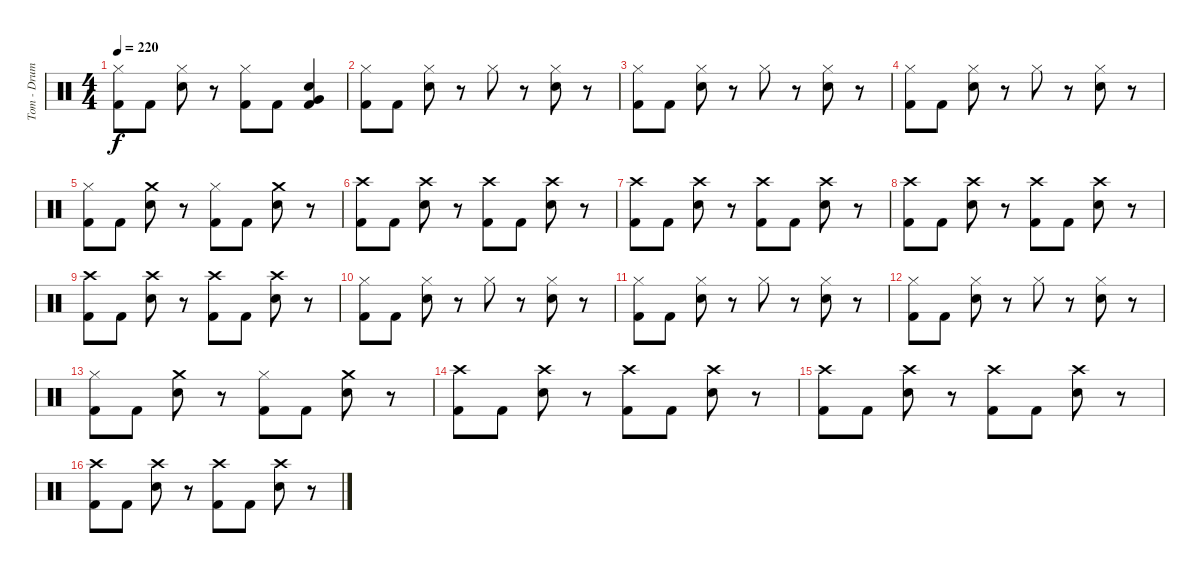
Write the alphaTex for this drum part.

\track ("Tom - Drums" "Tom - Drum") {instrument percussion}
\staff {score}
\articulation defaults
\ts (4 4)
\tempo 220
\clef neutral
\ks c
("Hi-Hat (closed)" "Kick (hit) 2").8{dy f} "Kick (hit) 2".8 ("Hi-Hat (closed)" "Electric Snare (hit)").8 r.8 ("Hi-Hat (closed)" "Kick (hit) 2").8 "Kick (hit) 2".8 ("Very Low Tom (hit)" "Kick (hit) 2" "Electric Snare (hit)").4 |
("Hi-Hat (closed)" "Kick (hit) 2").8 "Kick (hit) 2".8 ("Hi-Hat (closed)" "Electric Snare (hit)").8 r.8 "Hi-Hat (closed)".8 r.8 ("Hi-Hat (closed)" "Electric Snare (hit)").8 r.8 |
("Hi-Hat (closed)" "Kick (hit) 2").8 "Kick (hit) 2".8 ("Hi-Hat (closed)" "Electric Snare (hit)").8 r.8 "Hi-Hat (closed)".8 r.8 ("Hi-Hat (closed)" "Electric Snare (hit)").8 r.8 |
("Hi-Hat (closed)" "Kick (hit) 2").8 "Kick (hit) 2".8 ("Hi-Hat (closed)" "Electric Snare (hit)").8 r.8 "Hi-Hat (closed)".8 r.8 ("Hi-Hat (closed)" "Electric Snare (hit)").8 r.8 |
("Hi-Hat (closed)" "Kick (hit) 2").8 "Kick (hit) 2".8 ("Crash medium (hit)" "Electric Snare (hit)").8 r.8 ("Hi-Hat (closed)" "Kick (hit) 2").8 "Kick (hit) 2".8 ("Crash medium (hit)" "Electric Snare (hit)").8 r.8 |
("Crash high (hit)" "Kick (hit) 2").8 "Kick (hit) 2".8 ("Crash high (hit)" "Electric Snare (hit)").8 r.8 ("Crash high (hit)" "Kick (hit) 2").8 "Kick (hit) 2".8 ("Crash high (hit)" "Electric Snare (hit)").8 r.8 |
("Crash high (hit)" "Kick (hit) 2").8 "Kick (hit) 2".8 ("Crash high (hit)" "Electric Snare (hit)").8 r.8 ("Crash high (hit)" "Kick (hit) 2").8 "Kick (hit) 2".8 ("Crash high (hit)" "Electric Snare (hit)").8 r.8 |
("Crash high (hit)" "Kick (hit) 2").8 "Kick (hit) 2".8 ("Crash high (hit)" "Electric Snare (hit)").8 r.8 ("Crash high (hit)" "Kick (hit) 2").8 "Kick (hit) 2".8 ("Crash high (hit)" "Electric Snare (hit)").8 r.8 |
("Crash high (hit)" "Kick (hit) 2").8 "Kick (hit) 2".8 ("Crash high (hit)" "Electric Snare (hit)").8 r.8 ("Crash high (hit)" "Kick (hit) 2").8 "Kick (hit) 2".8 ("Crash high (hit)" "Electric Snare (hit)").8 r.8 |
("Hi-Hat (closed)" "Kick (hit) 2").8 "Kick (hit) 2".8 ("Hi-Hat (closed)" "Electric Snare (hit)").8 r.8 "Hi-Hat (closed)".8 r.8 ("Hi-Hat (closed)" "Electric Snare (hit)").8 r.8 |
("Hi-Hat (closed)" "Kick (hit) 2").8 "Kick (hit) 2".8 ("Hi-Hat (closed)" "Electric Snare (hit)").8 r.8 "Hi-Hat (closed)".8 r.8 ("Hi-Hat (closed)" "Electric Snare (hit)").8 r.8 |
("Hi-Hat (closed)" "Kick (hit) 2").8 "Kick (hit) 2".8 ("Hi-Hat (closed)" "Electric Snare (hit)").8 r.8 "Hi-Hat (closed)".8 r.8 ("Hi-Hat (closed)" "Electric Snare (hit)").8 r.8 |
("Hi-Hat (closed)" "Kick (hit) 2").8 "Kick (hit) 2".8 ("Crash medium (hit)" "Electric Snare (hit)").8 r.8 ("Hi-Hat (closed)" "Kick (hit) 2").8 "Kick (hit) 2".8 ("Crash medium (hit)" "Electric Snare (hit)").8 r.8 |
("Crash high (hit)" "Kick (hit) 2").8 "Kick (hit) 2".8 ("Crash high (hit)" "Electric Snare (hit)").8 r.8 ("Crash high (hit)" "Kick (hit) 2").8 "Kick (hit) 2".8 ("Crash high (hit)" "Electric Snare (hit)").8 r.8 |
("Crash high (hit)" "Kick (hit) 2").8 "Kick (hit) 2".8 ("Crash high (hit)" "Electric Snare (hit)").8 r.8 ("Crash high (hit)" "Kick (hit) 2").8 "Kick (hit) 2".8 ("Crash high (hit)" "Electric Snare (hit)").8 r.8 |
("Crash high (hit)" "Kick (hit) 2").8 "Kick (hit) 2".8 ("Crash high (hit)" "Electric Snare (hit)").8 r.8 ("Crash high (hit)" "Kick (hit) 2").8 "Kick (hit) 2".8 ("Crash high (hit)" "Electric Snare (hit)").8 r.8
